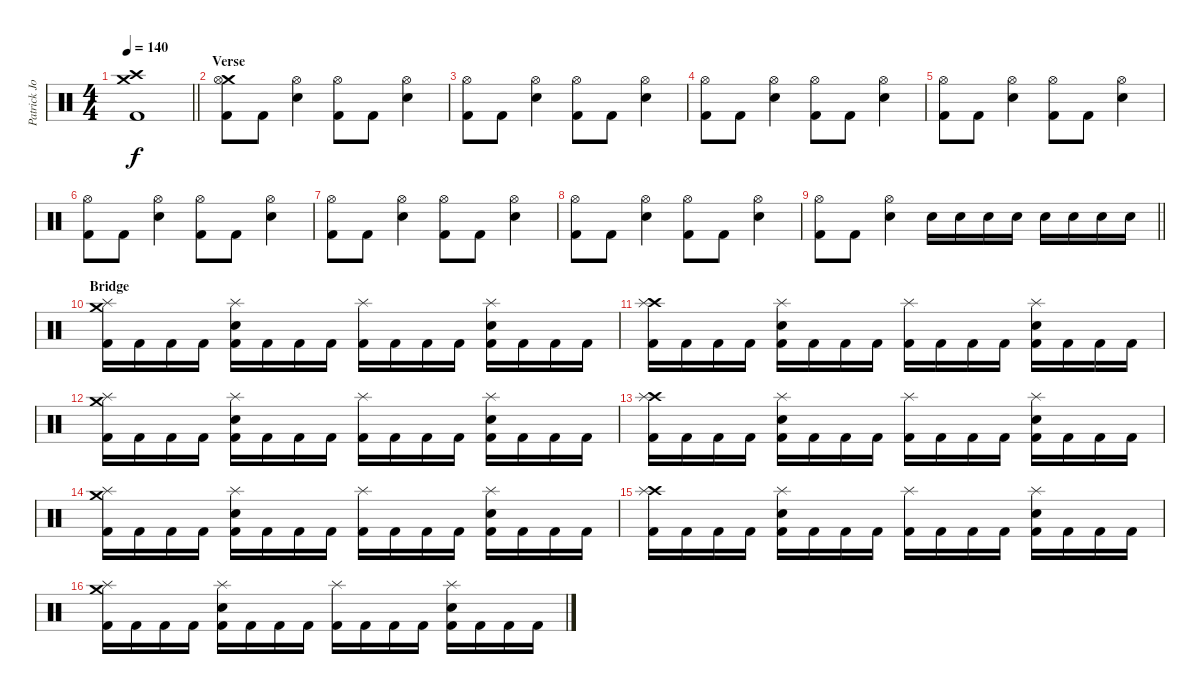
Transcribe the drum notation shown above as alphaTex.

\track ("Patrick Johansson" "Patrick Jo") {instrument percussion}
\staff {score}
\articulation defaults
\ts (4 4)
\tempo 140
\clef neutral
\barLineRight lightlight
\ks c
("Crash medium (hit)" "Crash high (hit)" "Kick (hit) 2").1{dy f} |
\section ("" "Verse")
("Crash medium (hit)" "Hi-Hat (open)" "Kick (hit) 2").8 "Kick (hit) 2".8 ("Hi-Hat (open)" "Snare (hit) 2").4 ("Hi-Hat (open)" "Kick (hit) 2").8 "Kick (hit) 2".8 ("Hi-Hat (open)" "Snare (hit) 2").4 |
("Hi-Hat (open)" "Kick (hit) 2").8 "Kick (hit) 2".8 ("Hi-Hat (open)" "Snare (hit) 2").4 ("Hi-Hat (open)" "Kick (hit) 2").8 "Kick (hit) 2".8 ("Hi-Hat (open)" "Snare (hit) 2").4 |
("Hi-Hat (open)" "Kick (hit) 2").8 "Kick (hit) 2".8 ("Hi-Hat (open)" "Snare (hit) 2").4 ("Hi-Hat (open)" "Kick (hit) 2").8 "Kick (hit) 2".8 ("Hi-Hat (open)" "Snare (hit) 2").4 |
("Hi-Hat (open)" "Kick (hit) 2").8 "Kick (hit) 2".8 ("Hi-Hat (open)" "Snare (hit) 2").4 ("Hi-Hat (open)" "Kick (hit) 2").8 "Kick (hit) 2".8 ("Hi-Hat (open)" "Snare (hit) 2").4 |
("Hi-Hat (open)" "Kick (hit) 2").8 "Kick (hit) 2".8 ("Hi-Hat (open)" "Snare (hit) 2").4 ("Hi-Hat (open)" "Kick (hit) 2").8 "Kick (hit) 2".8 ("Hi-Hat (open)" "Snare (hit) 2").4 |
("Hi-Hat (open)" "Kick (hit) 2").8 "Kick (hit) 2".8 ("Hi-Hat (open)" "Snare (hit) 2").4 ("Hi-Hat (open)" "Kick (hit) 2").8 "Kick (hit) 2".8 ("Hi-Hat (open)" "Snare (hit) 2").4 |
("Hi-Hat (open)" "Kick (hit) 2").8 "Kick (hit) 2".8 ("Hi-Hat (open)" "Snare (hit) 2").4 ("Hi-Hat (open)" "Kick (hit) 2").8 "Kick (hit) 2".8 ("Hi-Hat (open)" "Snare (hit) 2").4 |
\barLineRight lightlight
("Hi-Hat (open)" "Kick (hit) 2").8 "Kick (hit) 2".8 ("Hi-Hat (open)" "Snare (hit) 2").4 "Snare (hit) 2".16 "Snare (hit) 2".16 "Snare (hit) 2".16 "Snare (hit) 2".16 "Snare (hit) 2".16 "Snare (hit) 2".16 "Snare (hit) 2".16 "Snare (hit) 2".16 |
\section ("" "Bridge")
("Crash medium (hit)" "Splash (hit)" "Kick (hit) 2").16 "Kick (hit) 2".16 "Kick (hit) 2".16 "Kick (hit) 2".16 ("Splash (hit)" "Snare (hit) 2" "Kick (hit) 2").16 "Kick (hit) 2".16 "Kick (hit) 2".16 "Kick (hit) 2".16 ("Splash (hit)" "Kick (hit) 2").16 "Kick (hit) 2".16 "Kick (hit) 2".16 "Kick (hit) 2".16 ("Splash (hit)" "Snare (hit) 2" "Kick (hit) 2").16 "Kick (hit) 2".16 "Kick (hit) 2".16 "Kick (hit) 2".16 |
("Crash high (hit)" "Splash (hit)" "Kick (hit) 2").16 "Kick (hit) 2".16 "Kick (hit) 2".16 "Kick (hit) 2".16 ("Splash (hit)" "Snare (hit) 2" "Kick (hit) 2").16 "Kick (hit) 2".16 "Kick (hit) 2".16 "Kick (hit) 2".16 ("Splash (hit)" "Kick (hit) 2").16 "Kick (hit) 2".16 "Kick (hit) 2".16 "Kick (hit) 2".16 ("Splash (hit)" "Snare (hit) 2" "Kick (hit) 2").16 "Kick (hit) 2".16 "Kick (hit) 2".16 "Kick (hit) 2".16 |
("Crash medium (hit)" "Splash (hit)" "Kick (hit) 2").16 "Kick (hit) 2".16 "Kick (hit) 2".16 "Kick (hit) 2".16 ("Splash (hit)" "Snare (hit) 2" "Kick (hit) 2").16 "Kick (hit) 2".16 "Kick (hit) 2".16 "Kick (hit) 2".16 ("Splash (hit)" "Kick (hit) 2").16 "Kick (hit) 2".16 "Kick (hit) 2".16 "Kick (hit) 2".16 ("Splash (hit)" "Snare (hit) 2" "Kick (hit) 2").16 "Kick (hit) 2".16 "Kick (hit) 2".16 "Kick (hit) 2".16 |
("Crash high (hit)" "Splash (hit)" "Kick (hit) 2").16 "Kick (hit) 2".16 "Kick (hit) 2".16 "Kick (hit) 2".16 ("Splash (hit)" "Snare (hit) 2" "Kick (hit) 2").16 "Kick (hit) 2".16 "Kick (hit) 2".16 "Kick (hit) 2".16 ("Splash (hit)" "Kick (hit) 2").16 "Kick (hit) 2".16 "Kick (hit) 2".16 "Kick (hit) 2".16 ("Splash (hit)" "Snare (hit) 2" "Kick (hit) 2").16 "Kick (hit) 2".16 "Kick (hit) 2".16 "Kick (hit) 2".16 |
("Crash medium (hit)" "Splash (hit)" "Kick (hit) 2").16 "Kick (hit) 2".16 "Kick (hit) 2".16 "Kick (hit) 2".16 ("Splash (hit)" "Snare (hit) 2" "Kick (hit) 2").16 "Kick (hit) 2".16 "Kick (hit) 2".16 "Kick (hit) 2".16 ("Splash (hit)" "Kick (hit) 2").16 "Kick (hit) 2".16 "Kick (hit) 2".16 "Kick (hit) 2".16 ("Splash (hit)" "Snare (hit) 2" "Kick (hit) 2").16 "Kick (hit) 2".16 "Kick (hit) 2".16 "Kick (hit) 2".16 |
("Crash high (hit)" "Splash (hit)" "Kick (hit) 2").16 "Kick (hit) 2".16 "Kick (hit) 2".16 "Kick (hit) 2".16 ("Splash (hit)" "Snare (hit) 2" "Kick (hit) 2").16 "Kick (hit) 2".16 "Kick (hit) 2".16 "Kick (hit) 2".16 ("Splash (hit)" "Kick (hit) 2").16 "Kick (hit) 2".16 "Kick (hit) 2".16 "Kick (hit) 2".16 ("Splash (hit)" "Snare (hit) 2" "Kick (hit) 2").16 "Kick (hit) 2".16 "Kick (hit) 2".16 "Kick (hit) 2".16 |
("Crash medium (hit)" "Splash (hit)" "Kick (hit) 2").16 "Kick (hit) 2".16 "Kick (hit) 2".16 "Kick (hit) 2".16 ("Splash (hit)" "Snare (hit) 2" "Kick (hit) 2").16 "Kick (hit) 2".16 "Kick (hit) 2".16 "Kick (hit) 2".16 ("Splash (hit)" "Kick (hit) 2").16 "Kick (hit) 2".16 "Kick (hit) 2".16 "Kick (hit) 2".16 ("Splash (hit)" "Snare (hit) 2" "Kick (hit) 2").16 "Kick (hit) 2".16 "Kick (hit) 2".16 "Kick (hit) 2".16
